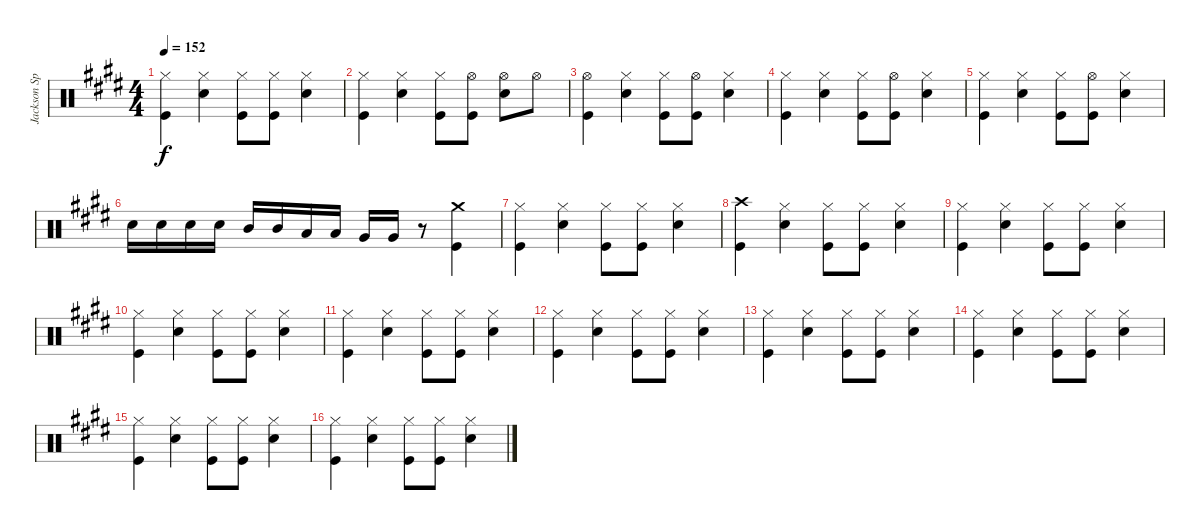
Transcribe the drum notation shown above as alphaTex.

\track ("Jackson Spiers Drums" "Jackson Sp") {instrument percussion}
\staff {score}
\articulation defaults
\ts (4 4)
\tempo 152
\clef neutral
\ks c#minor
("Hi-Hat (closed)" "Kick (hit)").4{dy f} ("Hi-Hat (closed)" "Snare (hit) 2").4 ("Hi-Hat (closed)" "Kick (hit)").8 ("Hi-Hat (closed)" "Kick (hit)").8 ("Hi-Hat (closed)" "Snare (hit) 2").4 |
("Hi-Hat (closed)" "Kick (hit)").4 ("Hi-Hat (closed)" "Snare (hit) 2").4 ("Hi-Hat (closed)" "Kick (hit)").8 ("Hi-Hat (open)" "Kick (hit)").8 ("Hi-Hat (open)" "Snare (hit) 2").8 "Hi-Hat (open)".8 |
("Hi-Hat (open)" "Kick (hit)").4 ("Hi-Hat (closed)" "Snare (hit) 2").4 ("Hi-Hat (closed)" "Kick (hit)").8 ("Hi-Hat (open)" "Kick (hit)").8 ("Hi-Hat (closed)" "Snare (hit) 2").4 |
("Hi-Hat (closed)" "Kick (hit)").4 ("Hi-Hat (closed)" "Snare (hit) 2").4 ("Hi-Hat (closed)" "Kick (hit)").8 ("Hi-Hat (open)" "Kick (hit)").8 ("Hi-Hat (closed)" "Snare (hit) 2").4 |
("Hi-Hat (closed)" "Kick (hit)").4 ("Hi-Hat (closed)" "Snare (hit) 2").4 ("Hi-Hat (closed)" "Kick (hit)").8 ("Hi-Hat (open)" "Kick (hit)").8 ("Hi-Hat (closed)" "Snare (hit) 2").4 |
"Snare (hit) 2".16 "Snare (hit) 2".16 "Snare (hit) 2".16 "Snare (hit) 2".16 "Mid Tom (hit)".16 "Mid Tom (hit)".16 "Low Tom (hit)".16 "Low Tom (hit)".16 "Very Low Tom (hit)".16 "Very Low Tom (hit)".16 r.8 ("Crash medium (hit)" "Kick (hit)").4 |
("Hi-Hat (closed)" "Kick (hit)").4 ("Hi-Hat (closed)" "Snare (hit) 2").4 ("Hi-Hat (closed)" "Kick (hit)").8 ("Hi-Hat (closed)" "Kick (hit)").8 ("Hi-Hat (closed)" "Snare (hit) 2").4 |
("Crash high (hit)" "Kick (hit)").4 ("Hi-Hat (closed)" "Snare (hit) 2").4 ("Hi-Hat (closed)" "Kick (hit)").8 ("Hi-Hat (closed)" "Kick (hit)").8 ("Hi-Hat (closed)" "Snare (hit) 2").4 |
("Hi-Hat (closed)" "Kick (hit)").4 ("Hi-Hat (closed)" "Snare (hit) 2").4 ("Hi-Hat (closed)" "Kick (hit)").8 ("Hi-Hat (closed)" "Kick (hit)").8 ("Hi-Hat (closed)" "Snare (hit) 2").4 |
("Hi-Hat (closed)" "Kick (hit)").4 ("Hi-Hat (closed)" "Snare (hit) 2").4 ("Hi-Hat (closed)" "Kick (hit)").8 ("Hi-Hat (closed)" "Kick (hit)").8 ("Hi-Hat (closed)" "Snare (hit) 2").4 |
("Hi-Hat (closed)" "Kick (hit)").4 ("Hi-Hat (closed)" "Snare (hit) 2").4 ("Hi-Hat (closed)" "Kick (hit)").8 ("Hi-Hat (closed)" "Kick (hit)").8 ("Hi-Hat (closed)" "Snare (hit) 2").4 |
("Hi-Hat (closed)" "Kick (hit)").4 ("Hi-Hat (closed)" "Snare (hit) 2").4 ("Hi-Hat (closed)" "Kick (hit)").8 ("Hi-Hat (closed)" "Kick (hit)").8 ("Hi-Hat (closed)" "Snare (hit) 2").4 |
("Hi-Hat (closed)" "Kick (hit)").4 ("Hi-Hat (closed)" "Snare (hit) 2").4 ("Hi-Hat (closed)" "Kick (hit)").8 ("Hi-Hat (closed)" "Kick (hit)").8 ("Hi-Hat (closed)" "Snare (hit) 2").4 |
("Hi-Hat (closed)" "Kick (hit)").4 ("Hi-Hat (closed)" "Snare (hit) 2").4 ("Hi-Hat (closed)" "Kick (hit)").8 ("Hi-Hat (closed)" "Kick (hit)").8 ("Hi-Hat (closed)" "Snare (hit) 2").4 |
("Hi-Hat (closed)" "Kick (hit)").4 ("Hi-Hat (closed)" "Snare (hit) 2").4 ("Hi-Hat (closed)" "Kick (hit)").8 ("Hi-Hat (closed)" "Kick (hit)").8 ("Hi-Hat (closed)" "Snare (hit) 2").4 |
("Hi-Hat (closed)" "Kick (hit)").4 ("Hi-Hat (closed)" "Snare (hit) 2").4 ("Hi-Hat (closed)" "Kick (hit)").8 ("Hi-Hat (closed)" "Kick (hit)").8 ("Hi-Hat (closed)" "Snare (hit) 2").4
